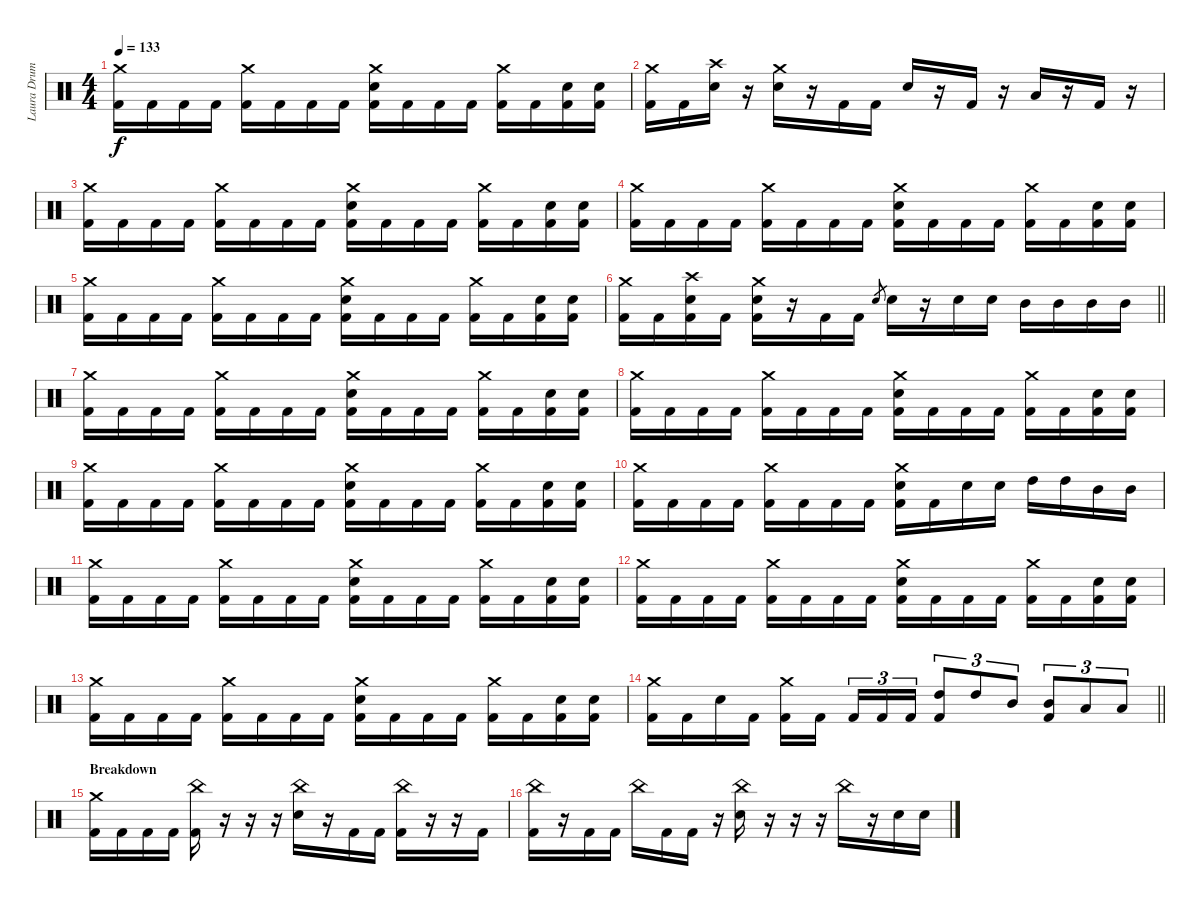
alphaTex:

\track ("Laura Drums" "Laura Drum") {instrument percussion}
\staff {score}
\articulation defaults
\ts (4 4)
\tempo 133
\clef neutral
\ks c
("Crash medium (hit)" "Kick (hit) 2").16{dy f} "Kick (hit) 2".16 "Kick (hit) 2".16 "Kick (hit) 2".16 ("Crash medium (hit)" "Kick (hit) 2").16 "Kick (hit) 2".16 "Kick (hit) 2".16 "Kick (hit) 2".16 ("Crash medium (hit)" "Electric Snare (hit)" "Kick (hit) 2").16 "Kick (hit) 2".16 "Kick (hit) 2".16 "Kick (hit) 2".16 ("Crash medium (hit)" "Kick (hit) 2").16 "Kick (hit) 2".16 ("Electric Snare (hit)" "Kick (hit) 2").16 ("Electric Snare (hit)" "Kick (hit) 2").16 |
("Crash medium (hit)" "Kick (hit) 2").16 "Kick (hit) 2".16 ("Crash high (hit)" "Electric Snare (hit)").16 r.16 ("Crash medium (hit)" "Electric Snare (hit)").16 r.16 "Kick (hit) 2".16 "Kick (hit) 2".16 "Electric Snare (hit)".16 r.16 "Kick (hit) 2".16 r.16 "Low Tom (hit)".16 r.16 "Kick (hit) 2".16 r.16 |
("Crash medium (hit)" "Kick (hit) 2").16 "Kick (hit) 2".16 "Kick (hit) 2".16 "Kick (hit) 2".16 ("Crash medium (hit)" "Kick (hit) 2").16 "Kick (hit) 2".16 "Kick (hit) 2".16 "Kick (hit) 2".16 ("Crash medium (hit)" "Electric Snare (hit)" "Kick (hit) 2").16 "Kick (hit) 2".16 "Kick (hit) 2".16 "Kick (hit) 2".16 ("Crash medium (hit)" "Kick (hit) 2").16 "Kick (hit) 2".16 ("Electric Snare (hit)" "Kick (hit) 2").16 ("Electric Snare (hit)" "Kick (hit) 2").16 |
("Crash medium (hit)" "Kick (hit) 2").16 "Kick (hit) 2".16 "Kick (hit) 2".16 "Kick (hit) 2".16 ("Crash medium (hit)" "Kick (hit) 2").16 "Kick (hit) 2".16 "Kick (hit) 2".16 "Kick (hit) 2".16 ("Crash medium (hit)" "Electric Snare (hit)" "Kick (hit) 2").16 "Kick (hit) 2".16 "Kick (hit) 2".16 "Kick (hit) 2".16 ("Crash medium (hit)" "Kick (hit) 2").16 "Kick (hit) 2".16 ("Electric Snare (hit)" "Kick (hit) 2").16 ("Electric Snare (hit)" "Kick (hit) 2").16 |
("Crash medium (hit)" "Kick (hit) 2").16 "Kick (hit) 2".16 "Kick (hit) 2".16 "Kick (hit) 2".16 ("Crash medium (hit)" "Kick (hit) 2").16 "Kick (hit) 2".16 "Kick (hit) 2".16 "Kick (hit) 2".16 ("Crash medium (hit)" "Electric Snare (hit)" "Kick (hit) 2").16 "Kick (hit) 2".16 "Kick (hit) 2".16 "Kick (hit) 2".16 ("Crash medium (hit)" "Kick (hit) 2").16 "Kick (hit) 2".16 ("Electric Snare (hit)" "Kick (hit) 2").16 ("Electric Snare (hit)" "Kick (hit) 2").16 |
\barLineRight lightlight
("Crash medium (hit)" "Kick (hit) 2").16 "Kick (hit) 2".16 ("Crash high (hit)" "Electric Snare (hit)" "Kick (hit) 2").16 "Kick (hit) 2".16 ("Crash medium (hit)" "Electric Snare (hit)" "Kick (hit) 2").16 r.16 "Kick (hit) 2".16 "Kick (hit) 2".16 "Electric Snare (hit)".8{gr} "Electric Snare (hit)".16 r.16 "Electric Snare (hit)".16 "Electric Snare (hit)".16 "Mid Tom (hit)".16 "Mid Tom (hit)".16 "Mid Tom (hit)".16 "Mid Tom (hit)".16 |
\section ("" "")
("Crash medium (hit)" "Kick (hit) 2").16 "Kick (hit) 2".16 "Kick (hit) 2".16 "Kick (hit) 2".16 ("Crash medium (hit)" "Kick (hit) 2").16 "Kick (hit) 2".16 "Kick (hit) 2".16 "Kick (hit) 2".16 ("Crash medium (hit)" "Electric Snare (hit)" "Kick (hit) 2").16 "Kick (hit) 2".16 "Kick (hit) 2".16 "Kick (hit) 2".16 ("Crash medium (hit)" "Kick (hit) 2").16 "Kick (hit) 2".16 ("Electric Snare (hit)" "Kick (hit) 2").16 ("Electric Snare (hit)" "Kick (hit) 2").16 |
("Crash medium (hit)" "Kick (hit) 2").16 "Kick (hit) 2".16 "Kick (hit) 2".16 "Kick (hit) 2".16 ("Crash medium (hit)" "Kick (hit) 2").16 "Kick (hit) 2".16 "Kick (hit) 2".16 "Kick (hit) 2".16 ("Crash medium (hit)" "Electric Snare (hit)" "Kick (hit) 2").16 "Kick (hit) 2".16 "Kick (hit) 2".16 "Kick (hit) 2".16 ("Crash medium (hit)" "Kick (hit) 2").16 "Kick (hit) 2".16 ("Electric Snare (hit)" "Kick (hit) 2").16 ("Electric Snare (hit)" "Kick (hit) 2").16 |
("Crash medium (hit)" "Kick (hit) 2").16 "Kick (hit) 2".16 "Kick (hit) 2".16 "Kick (hit) 2".16 ("Crash medium (hit)" "Kick (hit) 2").16 "Kick (hit) 2".16 "Kick (hit) 2".16 "Kick (hit) 2".16 ("Crash medium (hit)" "Electric Snare (hit)" "Kick (hit) 2").16 "Kick (hit) 2".16 "Kick (hit) 2".16 "Kick (hit) 2".16 ("Crash medium (hit)" "Kick (hit) 2").16 "Kick (hit) 2".16 ("Electric Snare (hit)" "Kick (hit) 2").16 ("Electric Snare (hit)" "Kick (hit) 2").16 |
("Crash medium (hit)" "Kick (hit) 2").16 "Kick (hit) 2".16 "Kick (hit) 2".16 "Kick (hit) 2".16 ("Crash medium (hit)" "Kick (hit) 2").16 "Kick (hit) 2".16 "Kick (hit) 2".16 "Kick (hit) 2".16 ("Crash medium (hit)" "Electric Snare (hit)" "Kick (hit) 2").16 "Kick (hit) 2".16 "Electric Snare (hit)".16 "Electric Snare (hit)".16 "High Tom (hit)".16 "High Tom (hit)".16 "Mid Tom (hit)".16 "Mid Tom (hit)".16 |
("Crash medium (hit)" "Kick (hit) 2").16 "Kick (hit) 2".16 "Kick (hit) 2".16 "Kick (hit) 2".16 ("Crash medium (hit)" "Kick (hit) 2").16 "Kick (hit) 2".16 "Kick (hit) 2".16 "Kick (hit) 2".16 ("Crash medium (hit)" "Electric Snare (hit)" "Kick (hit) 2").16 "Kick (hit) 2".16 "Kick (hit) 2".16 "Kick (hit) 2".16 ("Crash medium (hit)" "Kick (hit) 2").16 "Kick (hit) 2".16 ("Electric Snare (hit)" "Kick (hit) 2").16 ("Electric Snare (hit)" "Kick (hit) 2").16 |
("Crash medium (hit)" "Kick (hit) 2").16 "Kick (hit) 2".16 "Kick (hit) 2".16 "Kick (hit) 2".16 ("Crash medium (hit)" "Kick (hit) 2").16 "Kick (hit) 2".16 "Kick (hit) 2".16 "Kick (hit) 2".16 ("Crash medium (hit)" "Electric Snare (hit)" "Kick (hit) 2").16 "Kick (hit) 2".16 "Kick (hit) 2".16 "Kick (hit) 2".16 ("Crash medium (hit)" "Kick (hit) 2").16 "Kick (hit) 2".16 ("Electric Snare (hit)" "Kick (hit) 2").16 ("Electric Snare (hit)" "Kick (hit) 2").16 |
("Crash medium (hit)" "Kick (hit) 2").16 "Kick (hit) 2".16 "Kick (hit) 2".16 "Kick (hit) 2".16 ("Crash medium (hit)" "Kick (hit) 2").16 "Kick (hit) 2".16 "Kick (hit) 2".16 "Kick (hit) 2".16 ("Crash medium (hit)" "Electric Snare (hit)" "Kick (hit) 2").16 "Kick (hit) 2".16 "Kick (hit) 2".16 "Kick (hit) 2".16 ("Crash medium (hit)" "Kick (hit) 2").16 "Kick (hit) 2".16 ("Electric Snare (hit)" "Kick (hit) 2").16 ("Electric Snare (hit)" "Kick (hit) 2").16 |
\barLineRight lightlight
("Crash medium (hit)" "Kick (hit) 2").16 "Kick (hit) 2".16 "Electric Snare (hit)".16 "Kick (hit) 2".16 ("Crash medium (hit)" "Kick (hit) 2").16 "Kick (hit) 2".16{beam splitsecondary} "Kick (hit) 2".16{tu (3 2)} "Kick (hit) 2".16{tu (3 2)} "Kick (hit) 2".16{tu (3 2)} ("High Tom (hit)" "Kick (hit) 2").8{tu (3 2)} "High Tom (hit)".8{tu (3 2)} "Mid Tom (hit)".8{tu (3 2)} ("Mid Tom (hit)" "Kick (hit) 2").8{tu (3 2)} "Low Tom (hit)".8{tu (3 2)} "Low Tom (hit)".8{tu (3 2)} |
\section ("" "Breakdown")
("Crash medium (hit)" "Kick (hit) 2").16 "Kick (hit) 2".16 "Kick (hit) 2".16 "Kick (hit) 2".16 ("China (hit)" "Kick (hit) 2").16 r.16 r.16 r.16 ("China (hit)" "Electric Snare (hit)").16 r.16 "Kick (hit) 2".16 "Kick (hit) 2".16 ("China (hit)" "Kick (hit) 2").16 r.16 r.16 "Kick (hit) 2".16 |
("China (hit)" "Kick (hit) 2").16 r.16 "Kick (hit) 2".16 "Kick (hit) 2".16 "China (hit)".16 "Kick (hit) 2".16 "Kick (hit) 2".16 r.16 ("China (hit)" "Electric Snare (hit)").16 r.16 r.16 r.16 "China (hit)".16 r.16 "Electric Snare (hit)".16 "Electric Snare (hit)".16
